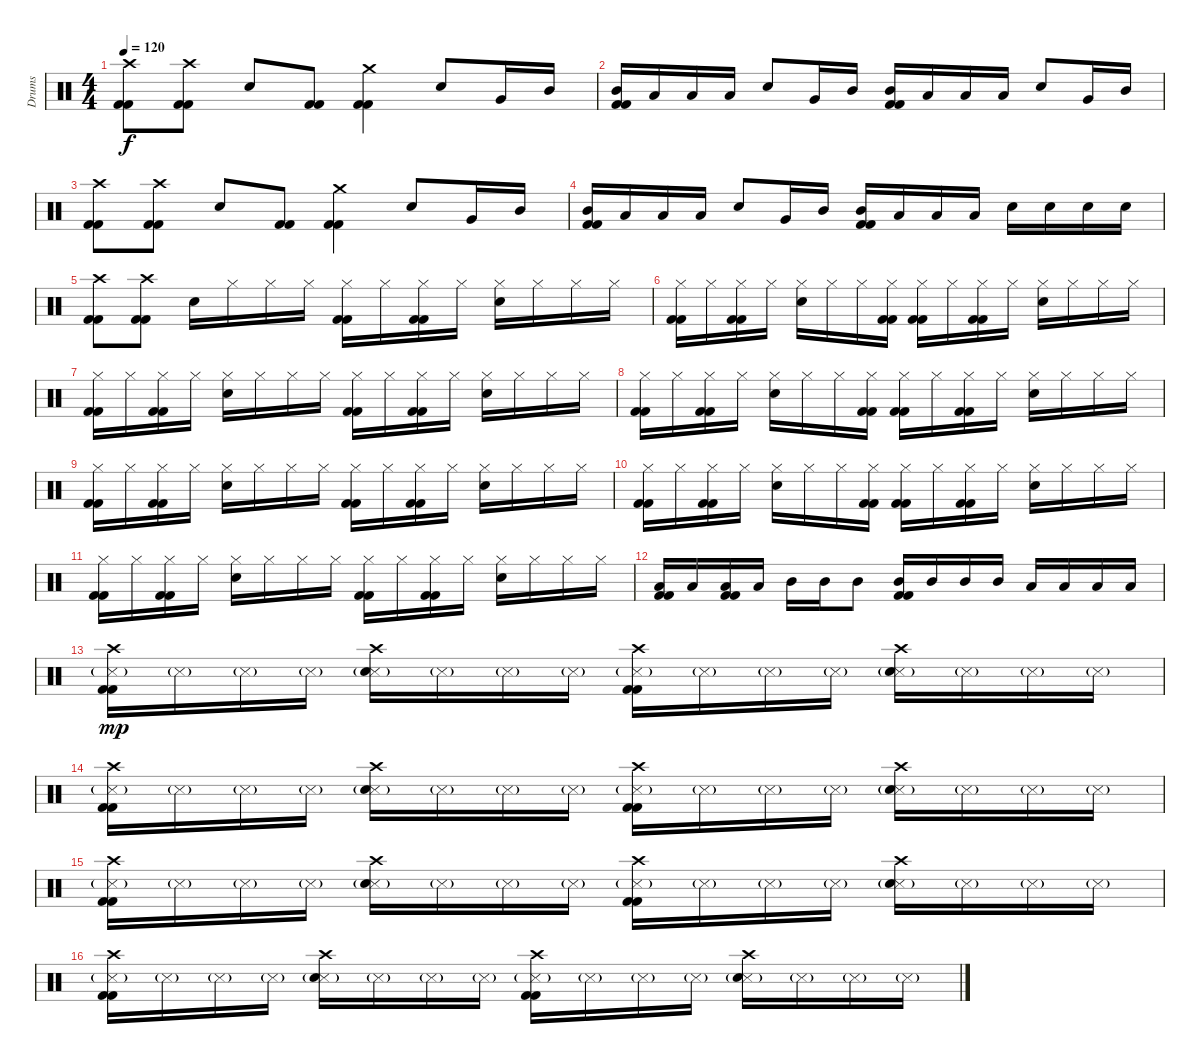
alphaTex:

\track ("Drums" "Drums") {instrument percussion}
\staff {score}
\articulation defaults
\ts (4 4)
\tempo 120
\clef neutral
\ks c
("Crash high (hit)" "Kick (hit) 2" "Kick (hit) 2").8{dy f} ("Crash high (hit)" "Kick (hit) 2" "Kick (hit) 2").8 "Electric Snare (hit)".8 ("Kick (hit) 2" "Kick (hit) 2").8 ("Crash medium (hit)" "Kick (hit) 2" "Kick (hit) 2").4 "Electric Snare (hit)".8 "Very Low Tom (hit)".16 "Mid Tom (hit)".16 |
("Mid Tom (hit)" "Kick (hit) 2" "Kick (hit) 2").16 "Low Tom (hit)".16 "Low Tom (hit)".16 "Low Tom (hit)".16 "Electric Snare (hit)".8 "Very Low Tom (hit)".16 "Mid Tom (hit)".16 ("Mid Tom (hit)" "Kick (hit) 2" "Kick (hit) 2").16 "Low Tom (hit)".16 "Low Tom (hit)".16 "Low Tom (hit)".16 "Electric Snare (hit)".8 "Very Low Tom (hit)".16 "Mid Tom (hit)".16 |
("Crash high (hit)" "Kick (hit) 2" "Kick (hit) 2").8 ("Crash high (hit)" "Kick (hit) 2" "Kick (hit) 2").8 "Electric Snare (hit)".8 ("Kick (hit) 2" "Kick (hit) 2").8 ("Crash medium (hit)" "Kick (hit) 2" "Kick (hit) 2").4 "Electric Snare (hit)".8 "Very Low Tom (hit)".16 "Mid Tom (hit)".16 |
("Mid Tom (hit)" "Kick (hit) 2" "Kick (hit) 2").16 "Low Tom (hit)".16 "Low Tom (hit)".16 "Low Tom (hit)".16 "Electric Snare (hit)".8 "Very Low Tom (hit)".16 "Mid Tom (hit)".16 ("Mid Tom (hit)" "Kick (hit) 2" "Kick (hit) 2").16 "Low Tom (hit)".16 "Low Tom (hit)".16 "Low Tom (hit)".16 "Electric Snare (hit)".16 "Electric Snare (hit)".16 "Electric Snare (hit)".16 "Electric Snare (hit)".16 |
("Crash high (hit)" "Kick (hit) 2" "Kick (hit) 2").8 ("Crash high (hit)" "Kick (hit) 2" "Kick (hit) 2").8 "Electric Snare (hit)".16 "Hi-Hat (closed)".16 "Hi-Hat (closed)".16 "Hi-Hat (closed)".16 ("Hi-Hat (closed)" "Kick (hit) 2" "Kick (hit) 2").16 "Hi-Hat (closed)".16 ("Hi-Hat (closed)" "Kick (hit) 2" "Kick (hit) 2").16 "Hi-Hat (closed)".16 ("Hi-Hat (closed)" "Electric Snare (hit)").16 "Hi-Hat (closed)".16 "Hi-Hat (closed)".16 "Hi-Hat (closed)".16 |
("Hi-Hat (closed)" "Kick (hit) 2" "Kick (hit) 2").16 "Hi-Hat (closed)".16 ("Hi-Hat (closed)" "Kick (hit) 2" "Kick (hit) 2").16 "Hi-Hat (closed)".16 ("Hi-Hat (closed)" "Electric Snare (hit)").16 "Hi-Hat (closed)".16 "Hi-Hat (closed)".16 ("Hi-Hat (closed)" "Kick (hit) 2" "Kick (hit) 2").16 ("Hi-Hat (closed)" "Kick (hit) 2" "Kick (hit) 2").16 "Hi-Hat (closed)".16 ("Hi-Hat (closed)" "Kick (hit) 2" "Kick (hit) 2").16 "Hi-Hat (closed)".16 ("Hi-Hat (closed)" "Electric Snare (hit)").16 "Hi-Hat (closed)".16 "Hi-Hat (closed)".16 "Hi-Hat (closed)".16 |
("Hi-Hat (closed)" "Kick (hit) 2" "Kick (hit) 2").16 "Hi-Hat (closed)".16 ("Hi-Hat (closed)" "Kick (hit) 2" "Kick (hit) 2").16 "Hi-Hat (closed)".16 ("Hi-Hat (closed)" "Electric Snare (hit)").16 "Hi-Hat (closed)".16 "Hi-Hat (closed)".16 "Hi-Hat (closed)".16 ("Hi-Hat (closed)" "Kick (hit) 2" "Kick (hit) 2").16 "Hi-Hat (closed)".16 ("Hi-Hat (closed)" "Kick (hit) 2" "Kick (hit) 2").16 "Hi-Hat (closed)".16 ("Hi-Hat (closed)" "Electric Snare (hit)").16 "Hi-Hat (closed)".16 "Hi-Hat (closed)".16 "Hi-Hat (closed)".16 |
("Hi-Hat (closed)" "Kick (hit) 2" "Kick (hit) 2").16 "Hi-Hat (closed)".16 ("Hi-Hat (closed)" "Kick (hit) 2" "Kick (hit) 2").16 "Hi-Hat (closed)".16 ("Hi-Hat (closed)" "Electric Snare (hit)").16 "Hi-Hat (closed)".16 "Hi-Hat (closed)".16 ("Hi-Hat (closed)" "Kick (hit) 2" "Kick (hit) 2").16 ("Hi-Hat (closed)" "Kick (hit) 2" "Kick (hit) 2").16 "Hi-Hat (closed)".16 ("Hi-Hat (closed)" "Kick (hit) 2" "Kick (hit) 2").16 "Hi-Hat (closed)".16 ("Hi-Hat (closed)" "Electric Snare (hit)").16 "Hi-Hat (closed)".16 "Hi-Hat (closed)".16 "Hi-Hat (closed)".16 |
("Hi-Hat (closed)" "Kick (hit) 2" "Kick (hit) 2").16 "Hi-Hat (closed)".16 ("Hi-Hat (closed)" "Kick (hit) 2" "Kick (hit) 2").16 "Hi-Hat (closed)".16 ("Hi-Hat (closed)" "Electric Snare (hit)").16 "Hi-Hat (closed)".16 "Hi-Hat (closed)".16 "Hi-Hat (closed)".16 ("Hi-Hat (closed)" "Kick (hit) 2" "Kick (hit) 2").16 "Hi-Hat (closed)".16 ("Hi-Hat (closed)" "Kick (hit) 2" "Kick (hit) 2").16 "Hi-Hat (closed)".16 ("Hi-Hat (closed)" "Electric Snare (hit)").16 "Hi-Hat (closed)".16 "Hi-Hat (closed)".16 "Hi-Hat (closed)".16 |
("Hi-Hat (closed)" "Kick (hit) 2" "Kick (hit) 2").16 "Hi-Hat (closed)".16 ("Hi-Hat (closed)" "Kick (hit) 2" "Kick (hit) 2").16 "Hi-Hat (closed)".16 ("Hi-Hat (closed)" "Electric Snare (hit)").16 "Hi-Hat (closed)".16 "Hi-Hat (closed)".16 ("Hi-Hat (closed)" "Kick (hit) 2" "Kick (hit) 2").16 ("Hi-Hat (closed)" "Kick (hit) 2" "Kick (hit) 2").16 "Hi-Hat (closed)".16 ("Hi-Hat (closed)" "Kick (hit) 2" "Kick (hit) 2").16 "Hi-Hat (closed)".16 ("Hi-Hat (closed)" "Electric Snare (hit)").16 "Hi-Hat (closed)".16 "Hi-Hat (closed)".16 "Hi-Hat (closed)".16 |
("Hi-Hat (closed)" "Kick (hit) 2" "Kick (hit) 2").16 "Hi-Hat (closed)".16 ("Hi-Hat (closed)" "Kick (hit) 2" "Kick (hit) 2").16 "Hi-Hat (closed)".16 ("Hi-Hat (closed)" "Electric Snare (hit)").16 "Hi-Hat (closed)".16 "Hi-Hat (closed)".16 "Hi-Hat (closed)".16 ("Hi-Hat (closed)" "Kick (hit) 2" "Kick (hit) 2").16 "Hi-Hat (closed)".16 ("Hi-Hat (closed)" "Kick (hit) 2" "Kick (hit) 2").16 "Hi-Hat (closed)".16 ("Hi-Hat (closed)" "Electric Snare (hit)").16 "Hi-Hat (closed)".16 "Hi-Hat (closed)".16 "Hi-Hat (closed)".16 |
("Low Tom (hit)" "Kick (hit) 2" "Kick (hit) 2").16 "Low Tom (hit)".16 ("Low Tom (hit)" "Kick (hit) 2" "Kick (hit) 2").16 "Low Tom (hit)".16 "Mid Tom (hit)".16 "Mid Tom (hit)".16 "Mid Tom (hit)".8 ("Mid Tom (hit)" "Kick (hit) 2" "Kick (hit) 2").16 "Mid Tom (hit)".16 "Mid Tom (hit)".16 "Mid Tom (hit)".16 "Low Tom (hit)".16 "Low Tom (hit)".16 "Low Tom (hit)".16 "Low Tom (hit)".16 |
("Crash high (hit)" "Snare (side stick) 3"{g} "Kick (hit) 2" "Kick (hit) 2").16{dy mp} "Snare (side stick) 3"{g}.16 "Snare (side stick) 3"{g}.16 "Snare (side stick) 3"{g}.16 ("Crash high (hit)" "Snare (side stick) 3"{g} "Electric Snare (hit)").16 "Snare (side stick) 3"{g}.16 "Snare (side stick) 3"{g}.16 "Snare (side stick) 3"{g}.16 ("Crash high (hit)" "Snare (side stick) 3"{g} "Kick (hit) 2" "Kick (hit) 2").16 "Snare (side stick) 3"{g}.16 "Snare (side stick) 3"{g}.16 "Snare (side stick) 3"{g}.16 ("Crash high (hit)" "Snare (side stick) 3"{g} "Electric Snare (hit)").16 "Snare (side stick) 3"{g}.16 "Snare (side stick) 3"{g}.16 "Snare (side stick) 3"{g}.16 |
("Crash high (hit)" "Snare (side stick) 3"{g} "Kick (hit) 2" "Kick (hit) 2").16 "Snare (side stick) 3"{g}.16 "Snare (side stick) 3"{g}.16 "Snare (side stick) 3"{g}.16 ("Crash high (hit)" "Snare (side stick) 3"{g} "Electric Snare (hit)").16 "Snare (side stick) 3"{g}.16 "Snare (side stick) 3"{g}.16 "Snare (side stick) 3"{g}.16 ("Crash high (hit)" "Snare (side stick) 3"{g} "Kick (hit) 2" "Kick (hit) 2").16 "Snare (side stick) 3"{g}.16 "Snare (side stick) 3"{g}.16 "Snare (side stick) 3"{g}.16 ("Crash high (hit)" "Snare (side stick) 3"{g} "Electric Snare (hit)").16 "Snare (side stick) 3"{g}.16 "Snare (side stick) 3"{g}.16 "Snare (side stick) 3"{g}.16 |
("Crash high (hit)" "Snare (side stick) 3"{g} "Kick (hit) 2" "Kick (hit) 2").16 "Snare (side stick) 3"{g}.16 "Snare (side stick) 3"{g}.16 "Snare (side stick) 3"{g}.16 ("Crash high (hit)" "Snare (side stick) 3"{g} "Electric Snare (hit)").16 "Snare (side stick) 3"{g}.16 "Snare (side stick) 3"{g}.16 "Snare (side stick) 3"{g}.16 ("Crash high (hit)" "Snare (side stick) 3"{g} "Kick (hit) 2" "Kick (hit) 2").16 "Snare (side stick) 3"{g}.16 "Snare (side stick) 3"{g}.16 "Snare (side stick) 3"{g}.16 ("Crash high (hit)" "Snare (side stick) 3"{g} "Electric Snare (hit)").16 "Snare (side stick) 3"{g}.16 "Snare (side stick) 3"{g}.16 "Snare (side stick) 3"{g}.16 |
("Crash high (hit)" "Snare (side stick) 3"{g} "Kick (hit) 2" "Kick (hit) 2").16 "Snare (side stick) 3"{g}.16 "Snare (side stick) 3"{g}.16 "Snare (side stick) 3"{g}.16 ("Crash high (hit)" "Snare (side stick) 3"{g} "Electric Snare (hit)").16 "Snare (side stick) 3"{g}.16 "Snare (side stick) 3"{g}.16 "Snare (side stick) 3"{g}.16 ("Crash high (hit)" "Snare (side stick) 3"{g} "Kick (hit) 2" "Kick (hit) 2").16 "Snare (side stick) 3"{g}.16 "Snare (side stick) 3"{g}.16 "Snare (side stick) 3"{g}.16 ("Crash high (hit)" "Snare (side stick) 3"{g} "Electric Snare (hit)").16 "Snare (side stick) 3"{g}.16 "Snare (side stick) 3"{g}.16 "Snare (side stick) 3"{g}.16
